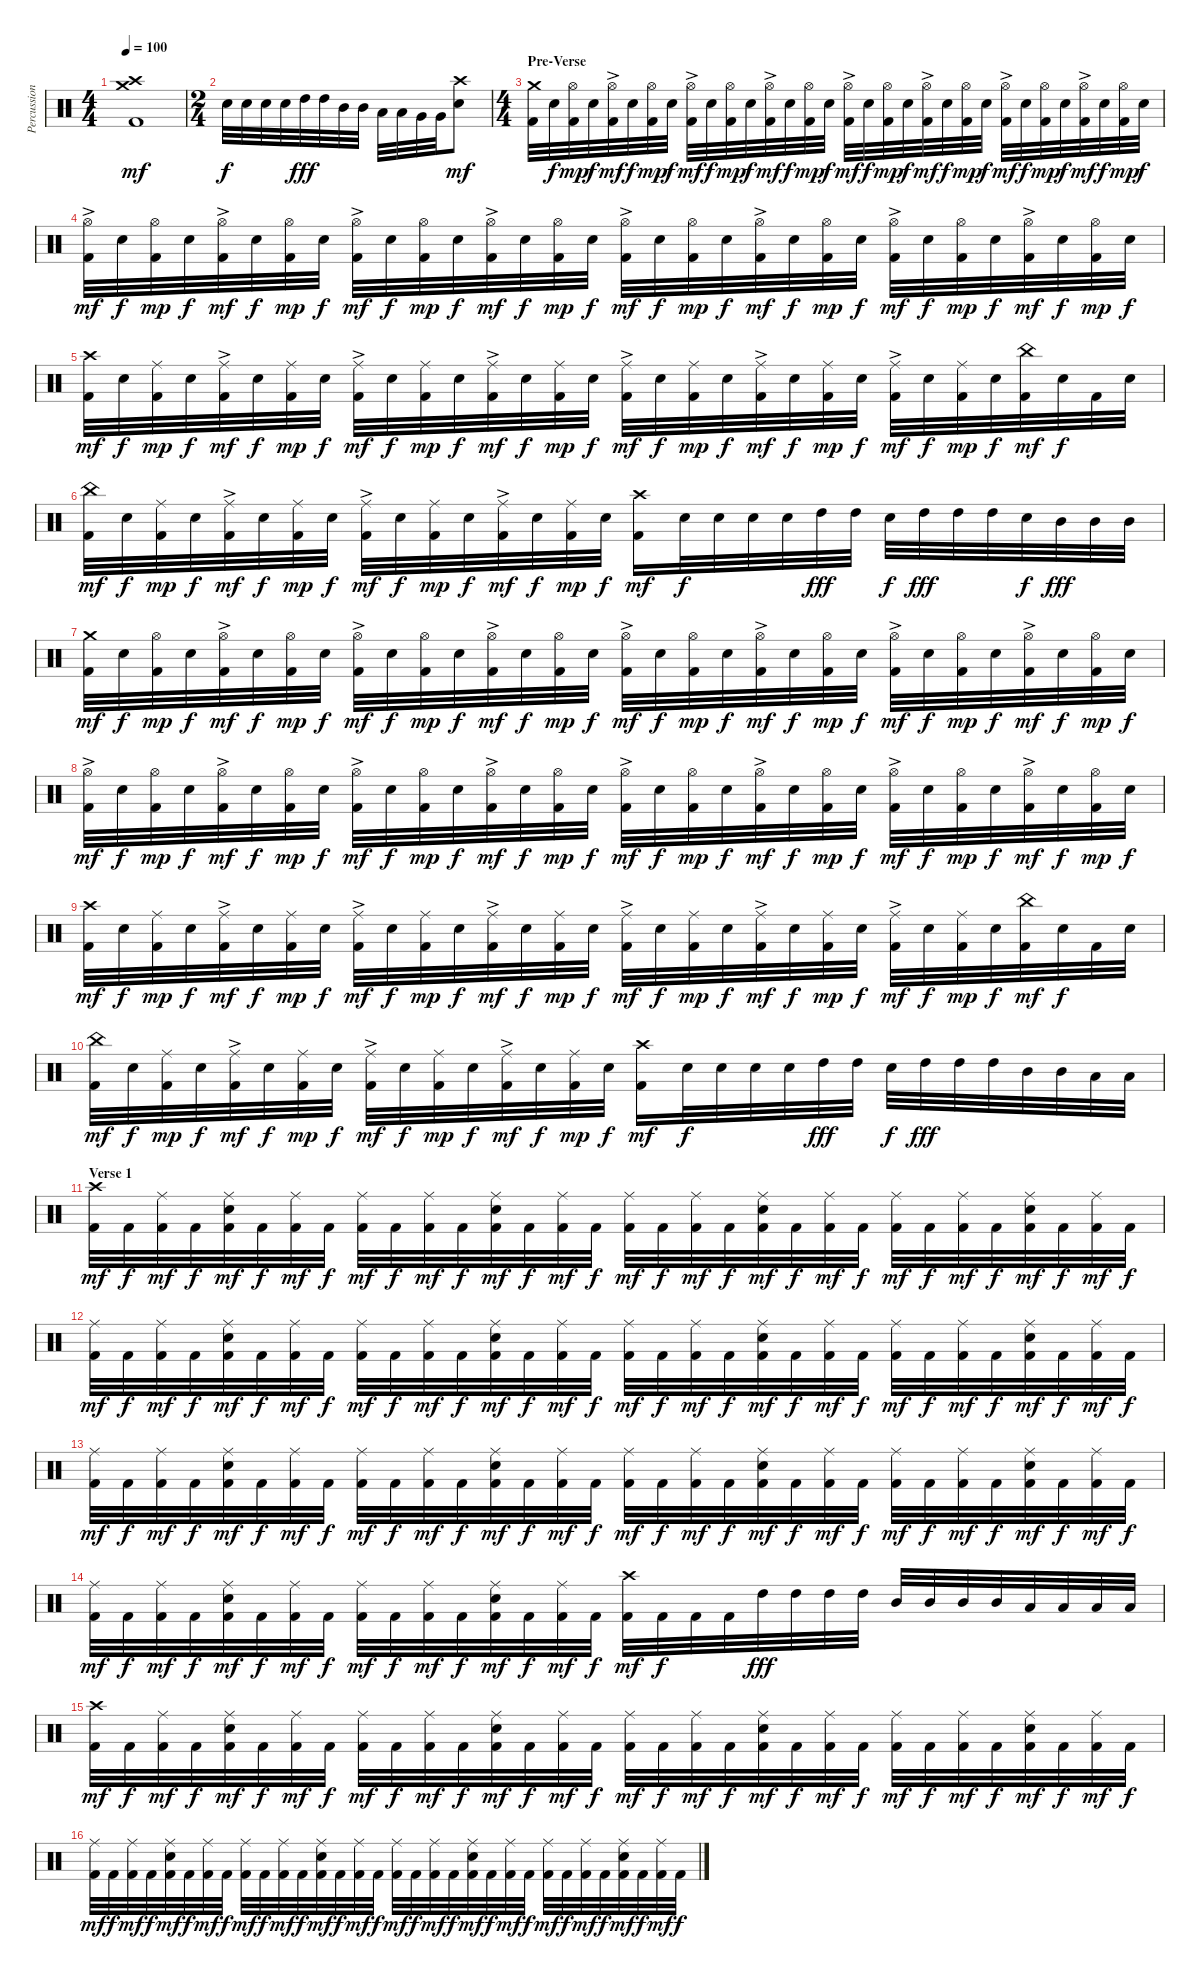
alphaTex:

\track ("Percussion" "Percussion") {instrument percussion}
\staff {score}
\articulation defaults
\ts (4 4)
\tempo 100
\clef neutral
\ks c
("Crash medium (hit)" "Crash high (hit)" "Kick (hit) 2").1{dy mf} |
\ts (2 4)
"Electric Snare (hit)".32{dy f} "Electric Snare (hit)".32 "Electric Snare (hit)".32 "Electric Snare (hit)".32 "High Tom (hit)".32{dy fff} "High Tom (hit)".32 "Mid Tom (hit)".32 "Mid Tom (hit)".32 "Low Tom (hit)".32 "Low Tom (hit)".32 "Very Low Tom (hit)".32 "Very Low Tom (hit)".32 ("Crash high (hit)" "Electric Snare (hit)").8{dy mf} |
\ts (4 4)
\section ("" "Pre-Verse")
("Crash medium (hit)" "Kick (hit) 2").32 "Electric Snare (hit)".32{dy f} ("Hi-Hat (open)" "Kick (hit) 2").32{dy mp} "Electric Snare (hit)".32{dy f} ("Hi-Hat (open)"{ac} "Kick (hit) 2").32{dy mf} "Electric Snare (hit)".32{dy f} ("Hi-Hat (open)" "Kick (hit) 2").32{dy mp} "Electric Snare (hit)".32{dy f} ("Hi-Hat (open)"{ac} "Kick (hit) 2").32{dy mf} "Electric Snare (hit)".32{dy f} ("Hi-Hat (open)" "Kick (hit) 2").32{dy mp} "Electric Snare (hit)".32{dy f} ("Hi-Hat (open)"{ac} "Kick (hit) 2").32{dy mf} "Electric Snare (hit)".32{dy f} ("Hi-Hat (open)" "Kick (hit) 2").32{dy mp} "Electric Snare (hit)".32{dy f} ("Hi-Hat (open)"{ac} "Kick (hit) 2").32{dy mf} "Electric Snare (hit)".32{dy f} ("Hi-Hat (open)" "Kick (hit) 2").32{dy mp} "Electric Snare (hit)".32{dy f} ("Hi-Hat (open)"{ac} "Kick (hit) 2").32{dy mf} "Electric Snare (hit)".32{dy f} ("Hi-Hat (open)" "Kick (hit) 2").32{dy mp} "Electric Snare (hit)".32{dy f} ("Hi-Hat (open)"{ac} "Kick (hit) 2").32{dy mf} "Electric Snare (hit)".32{dy f} ("Hi-Hat (open)" "Kick (hit) 2").32{dy mp} "Electric Snare (hit)".32{dy f} ("Hi-Hat (open)"{ac} "Kick (hit) 2").32{dy mf} "Electric Snare (hit)".32{dy f} ("Hi-Hat (open)" "Kick (hit) 2").32{dy mp} "Electric Snare (hit)".32{dy f} |
("Hi-Hat (open)"{ac} "Kick (hit) 2").32{dy mf} "Electric Snare (hit)".32{dy f} ("Hi-Hat (open)" "Kick (hit) 2").32{dy mp} "Electric Snare (hit)".32{dy f} ("Hi-Hat (open)"{ac} "Kick (hit) 2").32{dy mf} "Electric Snare (hit)".32{dy f} ("Hi-Hat (open)" "Kick (hit) 2").32{dy mp} "Electric Snare (hit)".32{dy f} ("Hi-Hat (open)"{ac} "Kick (hit) 2").32{dy mf} "Electric Snare (hit)".32{dy f} ("Hi-Hat (open)" "Kick (hit) 2").32{dy mp} "Electric Snare (hit)".32{dy f} ("Hi-Hat (open)"{ac} "Kick (hit) 2").32{dy mf} "Electric Snare (hit)".32{dy f} ("Hi-Hat (open)" "Kick (hit) 2").32{dy mp} "Electric Snare (hit)".32{dy f} ("Hi-Hat (open)"{ac} "Kick (hit) 2").32{dy mf} "Electric Snare (hit)".32{dy f} ("Hi-Hat (open)" "Kick (hit) 2").32{dy mp} "Electric Snare (hit)".32{dy f} ("Hi-Hat (open)"{ac} "Kick (hit) 2").32{dy mf} "Electric Snare (hit)".32{dy f} ("Hi-Hat (open)" "Kick (hit) 2").32{dy mp} "Electric Snare (hit)".32{dy f} ("Hi-Hat (open)"{ac} "Kick (hit) 2").32{dy mf} "Electric Snare (hit)".32{dy f} ("Hi-Hat (open)" "Kick (hit) 2").32{dy mp} "Electric Snare (hit)".32{dy f} ("Hi-Hat (open)"{ac} "Kick (hit) 2").32{dy mf} "Electric Snare (hit)".32{dy f} ("Hi-Hat (open)" "Kick (hit) 2").32{dy mp} "Electric Snare (hit)".32{dy f} |
("Crash high (hit)" "Kick (hit) 2").32{dy mf} "Electric Snare (hit)".32{dy f} ("Ride (middle)" "Kick (hit) 2").32{dy mp} "Electric Snare (hit)".32{dy f} ("Ride (middle)"{ac} "Kick (hit) 2").32{dy mf} "Electric Snare (hit)".32{dy f} ("Ride (middle)" "Kick (hit) 2").32{dy mp} "Electric Snare (hit)".32{dy f} ("Ride (middle)"{ac} "Kick (hit) 2").32{dy mf} "Electric Snare (hit)".32{dy f} ("Ride (middle)" "Kick (hit) 2").32{dy mp} "Electric Snare (hit)".32{dy f} ("Ride (middle)"{ac} "Kick (hit) 2").32{dy mf} "Electric Snare (hit)".32{dy f} ("Ride (middle)" "Kick (hit) 2").32{dy mp} "Electric Snare (hit)".32{dy f} ("Ride (middle)"{ac} "Kick (hit) 2").32{dy mf} "Electric Snare (hit)".32{dy f} ("Ride (middle)" "Kick (hit) 2").32{dy mp} "Electric Snare (hit)".32{dy f} ("Ride (middle)"{ac} "Kick (hit) 2").32{dy mf} "Electric Snare (hit)".32{dy f} ("Ride (middle)" "Kick (hit) 2").32{dy mp} "Electric Snare (hit)".32{dy f} ("Ride (middle)"{ac} "Kick (hit) 2").32{dy mf} "Electric Snare (hit)".32{dy f} ("Ride (middle)" "Kick (hit) 2").32{dy mp} "Electric Snare (hit)".32{dy f} ("China (hit)" "Kick (hit) 2").32{dy mf} "Electric Snare (hit)".32{dy f} "Kick (hit) 2".32 "Electric Snare (hit)".32 |
("China (hit)" "Kick (hit) 2").32{dy mf} "Electric Snare (hit)".32{dy f} ("Ride (middle)" "Kick (hit) 2").32{dy mp} "Electric Snare (hit)".32{dy f} ("Ride (middle)"{ac} "Kick (hit) 2").32{dy mf} "Electric Snare (hit)".32{dy f} ("Ride (middle)" "Kick (hit) 2").32{dy mp} "Electric Snare (hit)".32{dy f} ("Ride (middle)"{ac} "Kick (hit) 2").32{dy mf} "Electric Snare (hit)".32{dy f} ("Ride (middle)" "Kick (hit) 2").32{dy mp} "Electric Snare (hit)".32{dy f} ("Ride (middle)"{ac} "Kick (hit) 2").32{dy mf} "Electric Snare (hit)".32{dy f} ("Ride (middle)" "Kick (hit) 2").32{dy mp} "Electric Snare (hit)".32{dy f} ("Crash high (hit)" "Kick (hit) 2").16{dy mf} "Electric Snare (hit)".32{dy f} "Electric Snare (hit)".32 "Electric Snare (hit)".32 "Electric Snare (hit)".32 "High Tom (hit)".32{dy fff} "High Tom (hit)".32 "Electric Snare (hit)".32{dy f} "High Tom (hit)".32{dy fff} "High Tom (hit)".32 "High Tom (hit)".32 "Electric Snare (hit)".32{dy f} "Mid Tom (hit)".32{dy fff} "Mid Tom (hit)".32 "Mid Tom (hit)".32 |
("Crash medium (hit)" "Kick (hit) 2").32{dy mf} "Electric Snare (hit)".32{dy f} ("Hi-Hat (open)" "Kick (hit) 2").32{dy mp} "Electric Snare (hit)".32{dy f} ("Hi-Hat (open)"{ac} "Kick (hit) 2").32{dy mf} "Electric Snare (hit)".32{dy f} ("Hi-Hat (open)" "Kick (hit) 2").32{dy mp} "Electric Snare (hit)".32{dy f} ("Hi-Hat (open)"{ac} "Kick (hit) 2").32{dy mf} "Electric Snare (hit)".32{dy f} ("Hi-Hat (open)" "Kick (hit) 2").32{dy mp} "Electric Snare (hit)".32{dy f} ("Hi-Hat (open)"{ac} "Kick (hit) 2").32{dy mf} "Electric Snare (hit)".32{dy f} ("Hi-Hat (open)" "Kick (hit) 2").32{dy mp} "Electric Snare (hit)".32{dy f} ("Hi-Hat (open)"{ac} "Kick (hit) 2").32{dy mf} "Electric Snare (hit)".32{dy f} ("Hi-Hat (open)" "Kick (hit) 2").32{dy mp} "Electric Snare (hit)".32{dy f} ("Hi-Hat (open)"{ac} "Kick (hit) 2").32{dy mf} "Electric Snare (hit)".32{dy f} ("Hi-Hat (open)" "Kick (hit) 2").32{dy mp} "Electric Snare (hit)".32{dy f} ("Hi-Hat (open)"{ac} "Kick (hit) 2").32{dy mf} "Electric Snare (hit)".32{dy f} ("Hi-Hat (open)" "Kick (hit) 2").32{dy mp} "Electric Snare (hit)".32{dy f} ("Hi-Hat (open)"{ac} "Kick (hit) 2").32{dy mf} "Electric Snare (hit)".32{dy f} ("Hi-Hat (open)" "Kick (hit) 2").32{dy mp} "Electric Snare (hit)".32{dy f} |
("Hi-Hat (open)"{ac} "Kick (hit) 2").32{dy mf} "Electric Snare (hit)".32{dy f} ("Hi-Hat (open)" "Kick (hit) 2").32{dy mp} "Electric Snare (hit)".32{dy f} ("Hi-Hat (open)"{ac} "Kick (hit) 2").32{dy mf} "Electric Snare (hit)".32{dy f} ("Hi-Hat (open)" "Kick (hit) 2").32{dy mp} "Electric Snare (hit)".32{dy f} ("Hi-Hat (open)"{ac} "Kick (hit) 2").32{dy mf} "Electric Snare (hit)".32{dy f} ("Hi-Hat (open)" "Kick (hit) 2").32{dy mp} "Electric Snare (hit)".32{dy f} ("Hi-Hat (open)"{ac} "Kick (hit) 2").32{dy mf} "Electric Snare (hit)".32{dy f} ("Hi-Hat (open)" "Kick (hit) 2").32{dy mp} "Electric Snare (hit)".32{dy f} ("Hi-Hat (open)"{ac} "Kick (hit) 2").32{dy mf} "Electric Snare (hit)".32{dy f} ("Hi-Hat (open)" "Kick (hit) 2").32{dy mp} "Electric Snare (hit)".32{dy f} ("Hi-Hat (open)"{ac} "Kick (hit) 2").32{dy mf} "Electric Snare (hit)".32{dy f} ("Hi-Hat (open)" "Kick (hit) 2").32{dy mp} "Electric Snare (hit)".32{dy f} ("Hi-Hat (open)"{ac} "Kick (hit) 2").32{dy mf} "Electric Snare (hit)".32{dy f} ("Hi-Hat (open)" "Kick (hit) 2").32{dy mp} "Electric Snare (hit)".32{dy f} ("Hi-Hat (open)"{ac} "Kick (hit) 2").32{dy mf} "Electric Snare (hit)".32{dy f} ("Hi-Hat (open)" "Kick (hit) 2").32{dy mp} "Electric Snare (hit)".32{dy f} |
("Crash high (hit)" "Kick (hit) 2").32{dy mf} "Electric Snare (hit)".32{dy f} ("Ride (middle)" "Kick (hit) 2").32{dy mp} "Electric Snare (hit)".32{dy f} ("Ride (middle)"{ac} "Kick (hit) 2").32{dy mf} "Electric Snare (hit)".32{dy f} ("Ride (middle)" "Kick (hit) 2").32{dy mp} "Electric Snare (hit)".32{dy f} ("Ride (middle)"{ac} "Kick (hit) 2").32{dy mf} "Electric Snare (hit)".32{dy f} ("Ride (middle)" "Kick (hit) 2").32{dy mp} "Electric Snare (hit)".32{dy f} ("Ride (middle)"{ac} "Kick (hit) 2").32{dy mf} "Electric Snare (hit)".32{dy f} ("Ride (middle)" "Kick (hit) 2").32{dy mp} "Electric Snare (hit)".32{dy f} ("Ride (middle)"{ac} "Kick (hit) 2").32{dy mf} "Electric Snare (hit)".32{dy f} ("Ride (middle)" "Kick (hit) 2").32{dy mp} "Electric Snare (hit)".32{dy f} ("Ride (middle)"{ac} "Kick (hit) 2").32{dy mf} "Electric Snare (hit)".32{dy f} ("Ride (middle)" "Kick (hit) 2").32{dy mp} "Electric Snare (hit)".32{dy f} ("Ride (middle)"{ac} "Kick (hit) 2").32{dy mf} "Electric Snare (hit)".32{dy f} ("Ride (middle)" "Kick (hit) 2").32{dy mp} "Electric Snare (hit)".32{dy f} ("China (hit)" "Kick (hit) 2").32{dy mf} "Electric Snare (hit)".32{dy f} "Kick (hit) 2".32 "Electric Snare (hit)".32 |
("China (hit)" "Kick (hit) 2").32{dy mf} "Electric Snare (hit)".32{dy f} ("Ride (middle)" "Kick (hit) 2").32{dy mp} "Electric Snare (hit)".32{dy f} ("Ride (middle)"{ac} "Kick (hit) 2").32{dy mf} "Electric Snare (hit)".32{dy f} ("Ride (middle)" "Kick (hit) 2").32{dy mp} "Electric Snare (hit)".32{dy f} ("Ride (middle)"{ac} "Kick (hit) 2").32{dy mf} "Electric Snare (hit)".32{dy f} ("Ride (middle)" "Kick (hit) 2").32{dy mp} "Electric Snare (hit)".32{dy f} ("Ride (middle)"{ac} "Kick (hit) 2").32{dy mf} "Electric Snare (hit)".32{dy f} ("Ride (middle)" "Kick (hit) 2").32{dy mp} "Electric Snare (hit)".32{dy f} ("Crash high (hit)" "Kick (hit) 2").16{dy mf} "Electric Snare (hit)".32{dy f} "Electric Snare (hit)".32 "Electric Snare (hit)".32 "Electric Snare (hit)".32 "High Tom (hit)".32{dy fff} "High Tom (hit)".32 "Electric Snare (hit)".32{dy f} "High Tom (hit)".32{dy fff} "High Tom (hit)".32 "High Tom (hit)".32 "Mid Tom (hit)".32 "Mid Tom (hit)".32 "Low Tom (hit)".32 "Low Tom (hit)".32 |
\section ("" "Verse 1")
("Crash high (hit)" "Kick (hit) 2").32{dy mf} "Kick (hit) 2".32{dy f} ("Ride (middle)" "Kick (hit) 2").32{dy mf} "Kick (hit) 2".32{dy f} ("Ride (middle)" "Electric Snare (hit)" "Kick (hit) 2").32{dy mf} "Kick (hit) 2".32{dy f} ("Ride (middle)" "Kick (hit) 2").32{dy mf} "Kick (hit) 2".32{dy f} ("Ride (middle)" "Kick (hit) 2").32{dy mf} "Kick (hit) 2".32{dy f} ("Ride (middle)" "Kick (hit) 2").32{dy mf} "Kick (hit) 2".32{dy f} ("Ride (middle)" "Electric Snare (hit)" "Kick (hit) 2").32{dy mf} "Kick (hit) 2".32{dy f} ("Ride (middle)" "Kick (hit) 2").32{dy mf} "Kick (hit) 2".32{dy f} ("Ride (middle)" "Kick (hit) 2").32{dy mf} "Kick (hit) 2".32{dy f} ("Ride (middle)" "Kick (hit) 2").32{dy mf} "Kick (hit) 2".32{dy f} ("Ride (middle)" "Electric Snare (hit)" "Kick (hit) 2").32{dy mf} "Kick (hit) 2".32{dy f} ("Ride (middle)" "Kick (hit) 2").32{dy mf} "Kick (hit) 2".32{dy f} ("Ride (middle)" "Kick (hit) 2").32{dy mf} "Kick (hit) 2".32{dy f} ("Ride (middle)" "Kick (hit) 2").32{dy mf} "Kick (hit) 2".32{dy f} ("Ride (middle)" "Electric Snare (hit)" "Kick (hit) 2").32{dy mf} "Kick (hit) 2".32{dy f} ("Ride (middle)" "Kick (hit) 2").32{dy mf} "Kick (hit) 2".32{dy f} |
("Ride (middle)" "Kick (hit) 2").32{dy mf} "Kick (hit) 2".32{dy f} ("Ride (middle)" "Kick (hit) 2").32{dy mf} "Kick (hit) 2".32{dy f} ("Ride (middle)" "Electric Snare (hit)" "Kick (hit) 2").32{dy mf} "Kick (hit) 2".32{dy f} ("Ride (middle)" "Kick (hit) 2").32{dy mf} "Kick (hit) 2".32{dy f} ("Ride (middle)" "Kick (hit) 2").32{dy mf} "Kick (hit) 2".32{dy f} ("Ride (middle)" "Kick (hit) 2").32{dy mf} "Kick (hit) 2".32{dy f} ("Ride (middle)" "Electric Snare (hit)" "Kick (hit) 2").32{dy mf} "Kick (hit) 2".32{dy f} ("Ride (middle)" "Kick (hit) 2").32{dy mf} "Kick (hit) 2".32{dy f} ("Ride (middle)" "Kick (hit) 2").32{dy mf} "Kick (hit) 2".32{dy f} ("Ride (middle)" "Kick (hit) 2").32{dy mf} "Kick (hit) 2".32{dy f} ("Ride (middle)" "Electric Snare (hit)" "Kick (hit) 2").32{dy mf} "Kick (hit) 2".32{dy f} ("Ride (middle)" "Kick (hit) 2").32{dy mf} "Kick (hit) 2".32{dy f} ("Ride (middle)" "Kick (hit) 2").32{dy mf} "Kick (hit) 2".32{dy f} ("Ride (middle)" "Kick (hit) 2").32{dy mf} "Kick (hit) 2".32{dy f} ("Ride (middle)" "Electric Snare (hit)" "Kick (hit) 2").32{dy mf} "Kick (hit) 2".32{dy f} ("Ride (middle)" "Kick (hit) 2").32{dy mf} "Kick (hit) 2".32{dy f} |
("Ride (middle)" "Kick (hit) 2").32{dy mf} "Kick (hit) 2".32{dy f} ("Ride (middle)" "Kick (hit) 2").32{dy mf} "Kick (hit) 2".32{dy f} ("Ride (middle)" "Electric Snare (hit)" "Kick (hit) 2").32{dy mf} "Kick (hit) 2".32{dy f} ("Ride (middle)" "Kick (hit) 2").32{dy mf} "Kick (hit) 2".32{dy f} ("Ride (middle)" "Kick (hit) 2").32{dy mf} "Kick (hit) 2".32{dy f} ("Ride (middle)" "Kick (hit) 2").32{dy mf} "Kick (hit) 2".32{dy f} ("Ride (middle)" "Electric Snare (hit)" "Kick (hit) 2").32{dy mf} "Kick (hit) 2".32{dy f} ("Ride (middle)" "Kick (hit) 2").32{dy mf} "Kick (hit) 2".32{dy f} ("Ride (middle)" "Kick (hit) 2").32{dy mf} "Kick (hit) 2".32{dy f} ("Ride (middle)" "Kick (hit) 2").32{dy mf} "Kick (hit) 2".32{dy f} ("Ride (middle)" "Electric Snare (hit)" "Kick (hit) 2").32{dy mf} "Kick (hit) 2".32{dy f} ("Ride (middle)" "Kick (hit) 2").32{dy mf} "Kick (hit) 2".32{dy f} ("Ride (middle)" "Kick (hit) 2").32{dy mf} "Kick (hit) 2".32{dy f} ("Ride (middle)" "Kick (hit) 2").32{dy mf} "Kick (hit) 2".32{dy f} ("Ride (middle)" "Electric Snare (hit)" "Kick (hit) 2").32{dy mf} "Kick (hit) 2".32{dy f} ("Ride (middle)" "Kick (hit) 2").32{dy mf} "Kick (hit) 2".32{dy f} |
("Ride (middle)" "Kick (hit) 2").32{dy mf} "Kick (hit) 2".32{dy f} ("Ride (middle)" "Kick (hit) 2").32{dy mf} "Kick (hit) 2".32{dy f} ("Ride (middle)" "Electric Snare (hit)" "Kick (hit) 2").32{dy mf} "Kick (hit) 2".32{dy f} ("Ride (middle)" "Kick (hit) 2").32{dy mf} "Kick (hit) 2".32{dy f} ("Ride (middle)" "Kick (hit) 2").32{dy mf} "Kick (hit) 2".32{dy f} ("Ride (middle)" "Kick (hit) 2").32{dy mf} "Kick (hit) 2".32{dy f} ("Ride (middle)" "Electric Snare (hit)" "Kick (hit) 2").32{dy mf} "Kick (hit) 2".32{dy f} ("Ride (middle)" "Kick (hit) 2").32{dy mf} "Kick (hit) 2".32{dy f} ("Crash high (hit)" "Kick (hit) 2").32{dy mf} "Kick (hit) 2".32{dy f} "Kick (hit) 2".32 "Kick (hit) 2".32 "High Tom (hit)".32{dy fff} "High Tom (hit)".32 "High Tom (hit)".32 "High Tom (hit)".32 "Mid Tom (hit)".32 "Mid Tom (hit)".32 "Mid Tom (hit)".32 "Mid Tom (hit)".32 "Low Tom (hit)".32 "Low Tom (hit)".32 "Low Tom (hit)".32 "Low Tom (hit)".32 |
("Crash high (hit)" "Kick (hit) 2").32{dy mf} "Kick (hit) 2".32{dy f} ("Ride (middle)" "Kick (hit) 2").32{dy mf} "Kick (hit) 2".32{dy f} ("Ride (middle)" "Electric Snare (hit)" "Kick (hit) 2").32{dy mf} "Kick (hit) 2".32{dy f} ("Ride (middle)" "Kick (hit) 2").32{dy mf} "Kick (hit) 2".32{dy f} ("Ride (middle)" "Kick (hit) 2").32{dy mf} "Kick (hit) 2".32{dy f} ("Ride (middle)" "Kick (hit) 2").32{dy mf} "Kick (hit) 2".32{dy f} ("Ride (middle)" "Electric Snare (hit)" "Kick (hit) 2").32{dy mf} "Kick (hit) 2".32{dy f} ("Ride (middle)" "Kick (hit) 2").32{dy mf} "Kick (hit) 2".32{dy f} ("Ride (middle)" "Kick (hit) 2").32{dy mf} "Kick (hit) 2".32{dy f} ("Ride (middle)" "Kick (hit) 2").32{dy mf} "Kick (hit) 2".32{dy f} ("Ride (middle)" "Electric Snare (hit)" "Kick (hit) 2").32{dy mf} "Kick (hit) 2".32{dy f} ("Ride (middle)" "Kick (hit) 2").32{dy mf} "Kick (hit) 2".32{dy f} ("Ride (middle)" "Kick (hit) 2").32{dy mf} "Kick (hit) 2".32{dy f} ("Ride (middle)" "Kick (hit) 2").32{dy mf} "Kick (hit) 2".32{dy f} ("Ride (middle)" "Electric Snare (hit)" "Kick (hit) 2").32{dy mf} "Kick (hit) 2".32{dy f} ("Ride (middle)" "Kick (hit) 2").32{dy mf} "Kick (hit) 2".32{dy f} |
("Ride (middle)" "Kick (hit) 2").32{dy mf} "Kick (hit) 2".32{dy f} ("Ride (middle)" "Kick (hit) 2").32{dy mf} "Kick (hit) 2".32{dy f} ("Ride (middle)" "Electric Snare (hit)" "Kick (hit) 2").32{dy mf} "Kick (hit) 2".32{dy f} ("Ride (middle)" "Kick (hit) 2").32{dy mf} "Kick (hit) 2".32{dy f} ("Ride (middle)" "Kick (hit) 2").32{dy mf} "Kick (hit) 2".32{dy f} ("Ride (middle)" "Kick (hit) 2").32{dy mf} "Kick (hit) 2".32{dy f} ("Ride (middle)" "Electric Snare (hit)" "Kick (hit) 2").32{dy mf} "Kick (hit) 2".32{dy f} ("Ride (middle)" "Kick (hit) 2").32{dy mf} "Kick (hit) 2".32{dy f} ("Ride (middle)" "Kick (hit) 2").32{dy mf} "Kick (hit) 2".32{dy f} ("Ride (middle)" "Kick (hit) 2").32{dy mf} "Kick (hit) 2".32{dy f} ("Ride (middle)" "Electric Snare (hit)" "Kick (hit) 2").32{dy mf} "Kick (hit) 2".32{dy f} ("Ride (middle)" "Kick (hit) 2").32{dy mf} "Kick (hit) 2".32{dy f} ("Ride (middle)" "Kick (hit) 2").32{dy mf} "Kick (hit) 2".32{dy f} ("Ride (middle)" "Kick (hit) 2").32{dy mf} "Kick (hit) 2".32{dy f} ("Ride (middle)" "Electric Snare (hit)" "Kick (hit) 2").32{dy mf} "Kick (hit) 2".32{dy f} ("Ride (middle)" "Kick (hit) 2").32{dy mf} "Kick (hit) 2".32{dy f}
